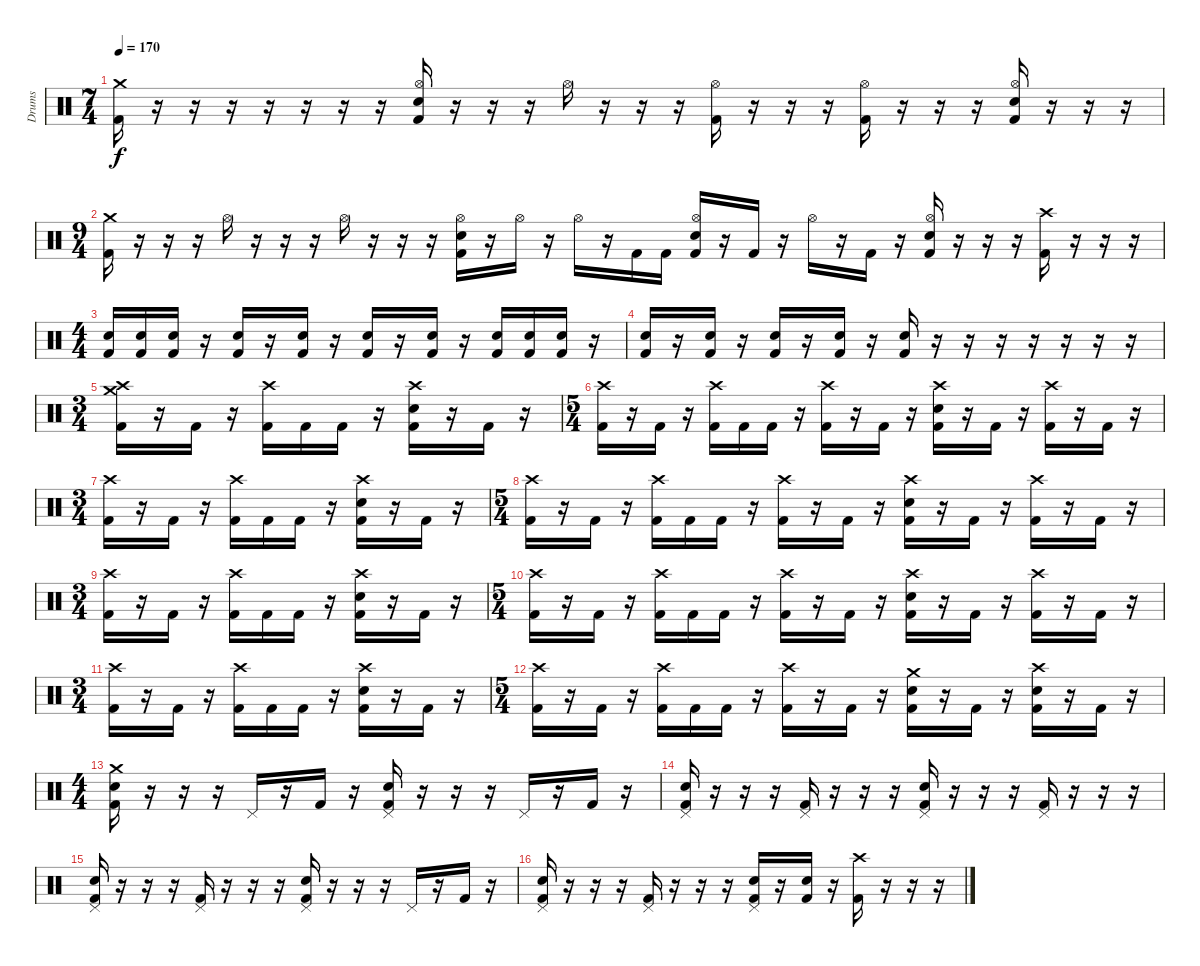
\track ("Drums" "Drums") {instrument percussion}
\staff {score}
\articulation defaults
\ts (7 4)
\tempo 170
\clef neutral
\ks c
("Crash medium (hit)" "Kick (hit) 2").16{dy f} r.16 r.16 r.16 r.16 r.16 r.16 r.16 ("Hi-Hat (open)" "Electric Snare (hit)" "Kick (hit) 2").16 r.16 r.16 r.16 "Hi-Hat (open)".16 r.16 r.16 r.16 ("Hi-Hat (open)" "Kick (hit) 2").16 r.16 r.16 r.16 ("Hi-Hat (open)" "Kick (hit) 2").16 r.16 r.16 r.16 ("Hi-Hat (open)" "Electric Snare (hit)" "Kick (hit) 2").16 r.16 r.16 r.16 |
\ts (9 4)
("Crash medium (hit)" "Kick (hit) 2").16 r.16 r.16 r.16 "Hi-Hat (open)".16 r.16 r.16 r.16 "Hi-Hat (open)".16 r.16 r.16 r.16 ("Hi-Hat (open)" "Electric Snare (hit)" "Kick (hit) 2").16 r.16 "Hi-Hat (open)".16 r.16 "Hi-Hat (open)".16 r.16 "Kick (hit) 2".16 "Kick (hit) 2".16 ("Hi-Hat (open)" "Electric Snare (hit)" "Kick (hit) 2").16 r.16 "Kick (hit) 2".16 r.16 "Hi-Hat (open)".16 r.16 "Kick (hit) 2".16 r.16 ("Hi-Hat (open)" "Electric Snare (hit)" "Kick (hit) 2").16 r.16 r.16 r.16 ("Crash high (hit)" "Kick (hit) 2").16 r.16 r.16 r.16 |
\ts (4 4)
\section ("" "")
("Electric Snare (hit)" "Kick (hit) 2").16 ("Electric Snare (hit)" "Kick (hit) 2").16 ("Electric Snare (hit)" "Kick (hit) 2").16 r.16 ("Electric Snare (hit)" "Kick (hit) 2").16 r.16 ("Electric Snare (hit)" "Kick (hit) 2").16 r.16 ("Electric Snare (hit)" "Kick (hit) 2").16 r.16 ("Electric Snare (hit)" "Kick (hit) 2").16 r.16 ("Electric Snare (hit)" "Kick (hit) 2").16 ("Electric Snare (hit)" "Kick (hit) 2").16 ("Electric Snare (hit)" "Kick (hit) 2").16 r.16 |
("Electric Snare (hit)" "Kick (hit) 2").16 r.16 ("Electric Snare (hit)" "Kick (hit) 2").16 r.16 ("Electric Snare (hit)" "Kick (hit) 2").16 r.16 ("Electric Snare (hit)" "Kick (hit) 2").16 r.16 ("Electric Snare (hit)" "Kick (hit) 2").16 r.16 r.16 r.16 r.16 r.16 r.16 r.16 |
\ts (3 4)
\section ("" "")
("Crash medium (hit)" "Crash high (hit)" "Kick (hit) 2").16 r.16 "Kick (hit) 2".16 r.16 ("Crash high (hit)" "Kick (hit) 2").16 "Kick (hit) 2".16 "Kick (hit) 2".16 r.16 ("Crash high (hit)" "Electric Snare (hit)" "Kick (hit) 2").16 r.16 "Kick (hit) 2".16 r.16 |
\ts (5 4)
("Crash high (hit)" "Kick (hit) 2").16 r.16 "Kick (hit) 2".16 r.16 ("Crash high (hit)" "Kick (hit) 2").16 "Kick (hit) 2".16 "Kick (hit) 2".16 r.16 ("Crash high (hit)" "Kick (hit) 2").16 r.16 "Kick (hit) 2".16 r.16 ("Crash high (hit)" "Electric Snare (hit)" "Kick (hit) 2").16 r.16 "Kick (hit) 2".16 r.16 ("Crash high (hit)" "Kick (hit) 2").16 r.16 "Kick (hit) 2".16 r.16 |
\ts (3 4)
("Crash high (hit)" "Kick (hit) 2").16 r.16 "Kick (hit) 2".16 r.16 ("Crash high (hit)" "Kick (hit) 2").16 "Kick (hit) 2".16 "Kick (hit) 2".16 r.16 ("Crash high (hit)" "Electric Snare (hit)" "Kick (hit) 2").16 r.16 "Kick (hit) 2".16 r.16 |
\ts (5 4)
("Crash high (hit)" "Kick (hit) 2").16 r.16 "Kick (hit) 2".16 r.16 ("Crash high (hit)" "Kick (hit) 2").16 "Kick (hit) 2".16 "Kick (hit) 2".16 r.16 ("Crash high (hit)" "Kick (hit) 2").16 r.16 "Kick (hit) 2".16 r.16 ("Crash high (hit)" "Electric Snare (hit)" "Kick (hit) 2").16 r.16 "Kick (hit) 2".16 r.16 ("Crash high (hit)" "Kick (hit) 2").16 r.16 "Kick (hit) 2".16 r.16 |
\ts (3 4)
("Crash high (hit)" "Kick (hit) 2").16 r.16 "Kick (hit) 2".16 r.16 ("Crash high (hit)" "Kick (hit) 2").16 "Kick (hit) 2".16 "Kick (hit) 2".16 r.16 ("Crash high (hit)" "Electric Snare (hit)" "Kick (hit) 2").16 r.16 "Kick (hit) 2".16 r.16 |
\ts (5 4)
("Crash high (hit)" "Kick (hit) 2").16 r.16 "Kick (hit) 2".16 r.16 ("Crash high (hit)" "Kick (hit) 2").16 "Kick (hit) 2".16 "Kick (hit) 2".16 r.16 ("Crash high (hit)" "Kick (hit) 2").16 r.16 "Kick (hit) 2".16 r.16 ("Crash high (hit)" "Electric Snare (hit)" "Kick (hit) 2").16 r.16 "Kick (hit) 2".16 r.16 ("Crash high (hit)" "Kick (hit) 2").16 r.16 "Kick (hit) 2".16 r.16 |
\ts (3 4)
("Crash high (hit)" "Kick (hit) 2").16 r.16 "Kick (hit) 2".16 r.16 ("Crash high (hit)" "Kick (hit) 2").16 "Kick (hit) 2".16 "Kick (hit) 2".16 r.16 ("Crash high (hit)" "Electric Snare (hit)" "Kick (hit) 2").16 r.16 "Kick (hit) 2".16 r.16 |
\ts (5 4)
("Crash high (hit)" "Kick (hit) 2").16 r.16 "Kick (hit) 2".16 r.16 ("Crash high (hit)" "Kick (hit) 2").16 "Kick (hit) 2".16 "Kick (hit) 2".16 r.16 ("Crash high (hit)" "Kick (hit) 2").16 r.16 "Kick (hit) 2".16 r.16 ("Crash medium (hit)" "Electric Snare (hit)" "Kick (hit) 2").16 r.16 "Kick (hit) 2".16 r.16 ("Crash high (hit)" "Electric Snare (hit)" "Kick (hit) 2").16 r.16 "Kick (hit) 2".16 r.16 |
\ts (4 4)
\section ("" "")
("Crash medium (hit)" "Electric Snare (hit)" "Kick (hit) 2").16 r.16 r.16 r.16 "Pedal Hi-Hat (hit)".16 r.16 "Kick (hit) 2".16 r.16 ("Pedal Hi-Hat (hit)" "Electric Snare (hit)" "Kick (hit) 2").16 r.16 r.16 r.16 "Pedal Hi-Hat (hit)".16 r.16 "Kick (hit) 2".16 r.16 |
("Pedal Hi-Hat (hit)" "Electric Snare (hit)" "Kick (hit) 2").16 r.16 r.16 r.16 ("Pedal Hi-Hat (hit)" "Kick (hit) 2").16 r.16 r.16 r.16 ("Pedal Hi-Hat (hit)" "Electric Snare (hit)" "Kick (hit) 2").16 r.16 r.16 r.16 ("Pedal Hi-Hat (hit)" "Kick (hit) 2").16 r.16 r.16 r.16 |
("Pedal Hi-Hat (hit)" "Electric Snare (hit)" "Kick (hit) 2").16 r.16 r.16 r.16 ("Pedal Hi-Hat (hit)" "Kick (hit) 2").16 r.16 r.16 r.16 ("Pedal Hi-Hat (hit)" "Electric Snare (hit)" "Kick (hit) 2").16 r.16 r.16 r.16 "Pedal Hi-Hat (hit)".16 r.16 "Kick (hit) 2".16 r.16 |
("Pedal Hi-Hat (hit)" "Electric Snare (hit)" "Kick (hit) 2").16 r.16 r.16 r.16 ("Pedal Hi-Hat (hit)" "Kick (hit) 2").16 r.16 r.16 r.16 ("Pedal Hi-Hat (hit)" "Electric Snare (hit)" "Kick (hit) 2").16 r.16 ("Electric Snare (hit)" "Kick (hit) 2").16 r.16 ("Crash high (hit)" "Kick (hit) 2").16 r.16 r.16 r.16
